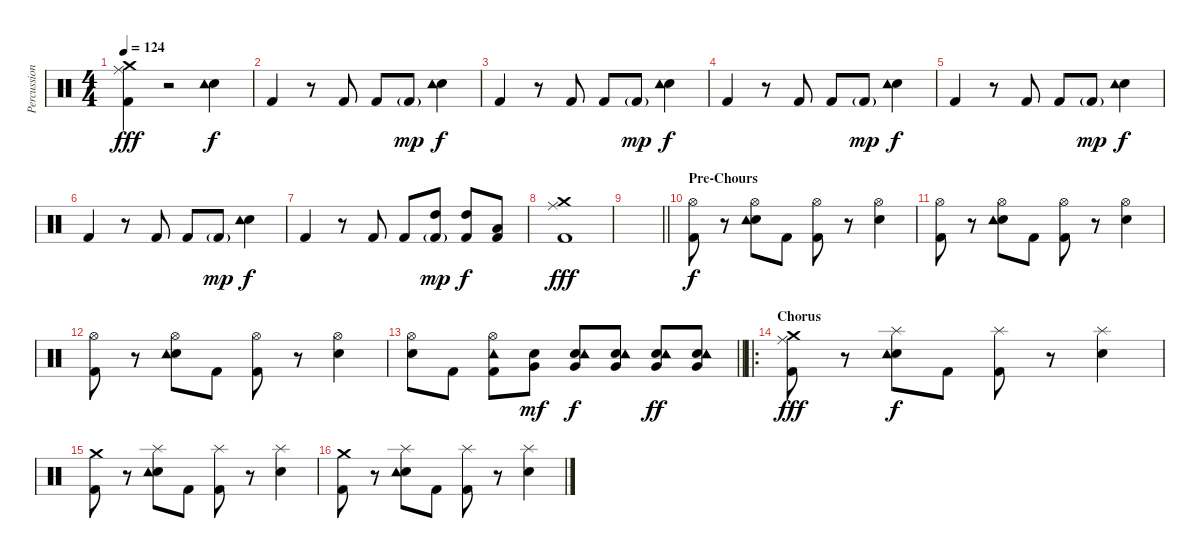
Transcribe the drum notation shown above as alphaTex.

\track ("Percussion" "Percussion") {instrument percussion}
\staff {score}
\articulation defaults
\ts (4 4)
\tempo 124
\clef neutral
\ks c
("Crash medium (hit)" "Ride (middle)" "Kick (hit) 2").4{dy fff} r.2 ("Electric Snare (hit)" "Tambourine (hit)").4{dy f} |
"Kick (hit) 2".4 r.8 "Kick (hit) 2".8 "Kick (hit) 2".8 "Kick (hit) 2"{g}.8{dy mp} ("Electric Snare (hit)" "Tambourine (hit)").4{dy f} |
"Kick (hit) 2".4 r.8 "Kick (hit) 2".8 "Kick (hit) 2".8 "Kick (hit) 2"{g}.8{dy mp} ("Electric Snare (hit)" "Tambourine (hit)").4{dy f} |
"Kick (hit) 2".4 r.8 "Kick (hit) 2".8 "Kick (hit) 2".8 "Kick (hit) 2"{g}.8{dy mp} ("Electric Snare (hit)" "Tambourine (hit)").4{dy f} |
"Kick (hit) 2".4 r.8 "Kick (hit) 2".8 "Kick (hit) 2".8 "Kick (hit) 2"{g}.8{dy mp} ("Electric Snare (hit)" "Tambourine (hit)").4{dy f} |
"Kick (hit) 2".4 r.8 "Kick (hit) 2".8 "Kick (hit) 2".8 "Kick (hit) 2"{g}.8{dy mp} ("Electric Snare (hit)" "Tambourine (hit)").4{dy f} |
"Kick (hit) 2".4 r.8 "Kick (hit) 2".8 "Kick (hit) 2".8 ("High Tom (hit)" "Kick (hit) 2"{g}).8{dy mp} ("High Tom (hit)" "Kick (hit) 2").8{dy f} ("Low Tom (hit)" "Kick (hit) 2").8 |
("Crash medium (hit)" "Ride (middle)" "Kick (hit) 2").1{dy fff} |
\barLineRight lightlight
|
\section ("" "Pre-Chours")
("Hi-Hat (open)" "Kick (hit) 2").8{dy f} r.8 ("Hi-Hat (open)" "Electric Snare (hit)" "Tambourine (hit)").8 "Kick (hit) 2".8 ("Hi-Hat (open)" "Kick (hit) 2").8 r.8 ("Hi-Hat (open)" "Electric Snare (hit)").4 |
("Hi-Hat (open)" "Kick (hit) 2").8 r.8 ("Hi-Hat (open)" "Electric Snare (hit)" "Tambourine (hit)").8 "Kick (hit) 2".8 ("Hi-Hat (open)" "Kick (hit) 2").8 r.8 ("Hi-Hat (open)" "Electric Snare (hit)").4 |
("Hi-Hat (open)" "Kick (hit) 2").8 r.8 ("Hi-Hat (open)" "Electric Snare (hit)" "Tambourine (hit)").8 "Kick (hit) 2".8 ("Hi-Hat (open)" "Kick (hit) 2").8 r.8 ("Hi-Hat (open)" "Electric Snare (hit)").4 |
\barLineRight lightlight
("Hi-Hat (open)" "Electric Snare (hit)").8 "Kick (hit) 2".8 ("Hi-Hat (open)" "Kick (hit) 2" "Tambourine (hit)").8 ("Electric Snare (hit)" "Very Low Tom (hit)").8{dy mf} ("Electric Snare (hit)" "Very Low Tom (hit)" "Tambourine (hit)").8{dy f} ("Electric Snare (hit)" "Very Low Tom (hit)" "Tambourine (hit)").8 ("Electric Snare (hit)" "Very Low Tom (hit)" "Tambourine (hit)").8{dy ff} ("Electric Snare (hit)" "Very Low Tom (hit)" "Tambourine (hit)").8 |
\ro
\section ("" "Chorus")
("Crash medium (hit)" "Ride (middle)" "Kick (hit) 2").8{dy fff} r.8 ("Splash (hit)" "Electric Snare (hit)" "Tambourine (hit)").8{dy f} "Kick (hit) 2".8 ("Splash (hit)" "Kick (hit) 2").8 r.8 ("Splash (hit)" "Electric Snare (hit)").4 |
("Crash medium (hit)" "Kick (hit) 2").8 r.8 ("Splash (hit)" "Electric Snare (hit)" "Tambourine (hit)").8 "Kick (hit) 2".8 ("Splash (hit)" "Kick (hit) 2").8 r.8 ("Splash (hit)" "Electric Snare (hit)").4 |
("Crash medium (hit)" "Kick (hit) 2").8 r.8 ("Splash (hit)" "Electric Snare (hit)" "Tambourine (hit)").8 "Kick (hit) 2".8 ("Splash (hit)" "Kick (hit) 2").8 r.8 ("Splash (hit)" "Electric Snare (hit)").4
